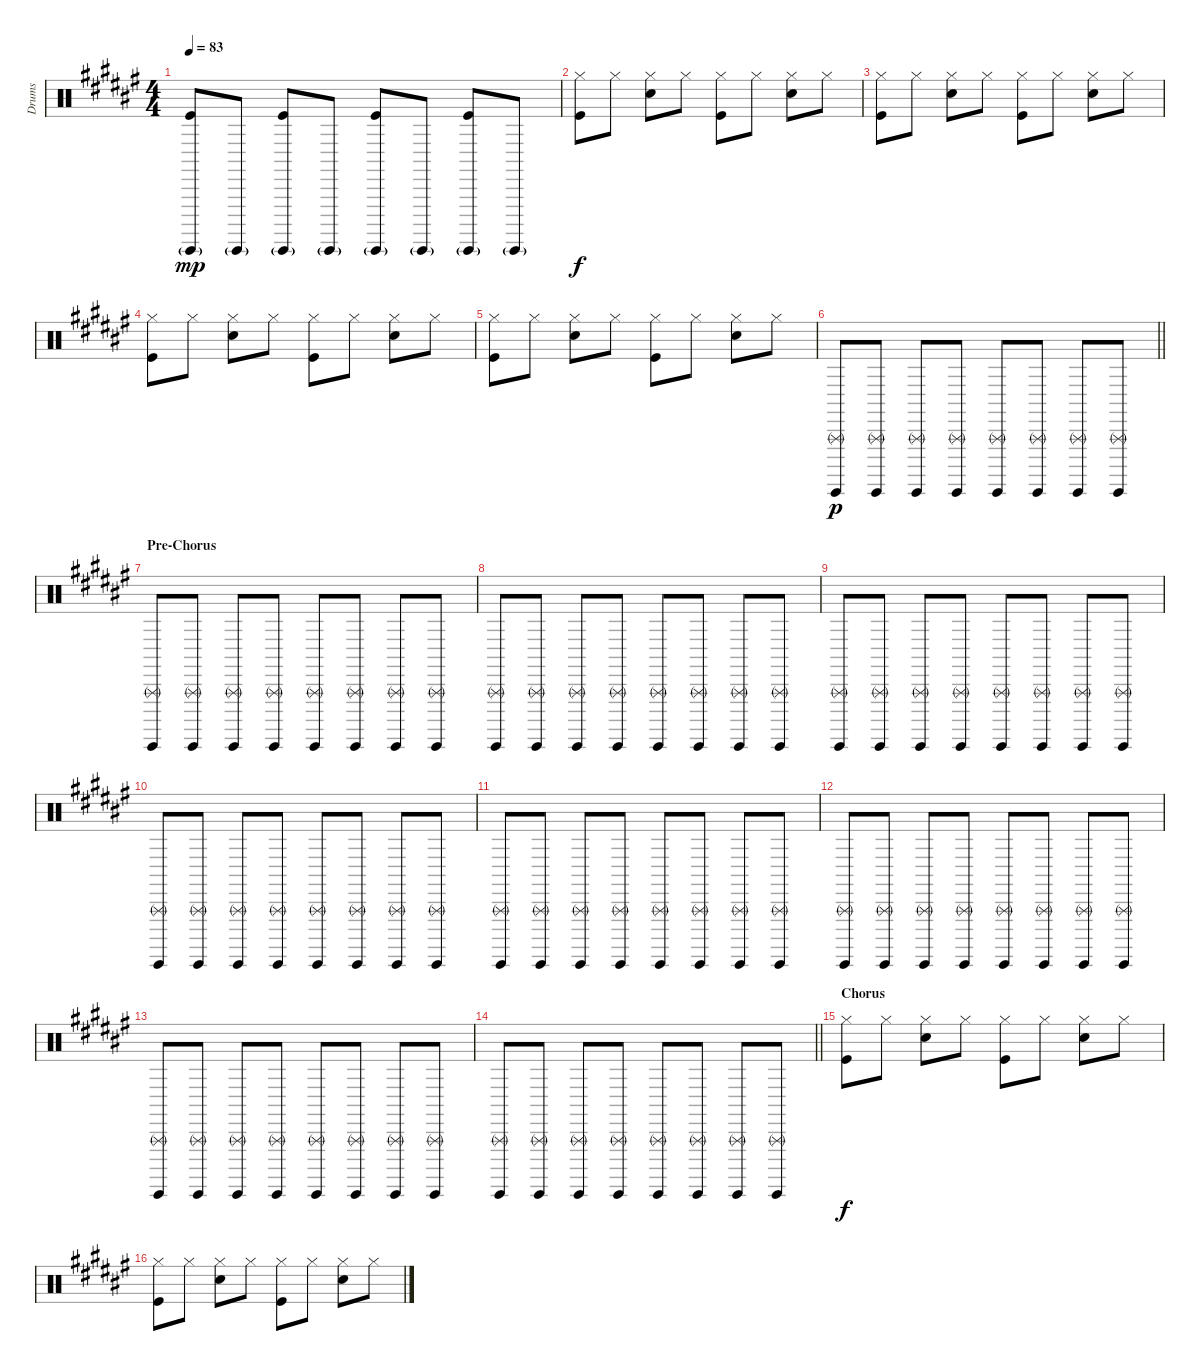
\track ("Drums" "Drums") {instrument percussion}
\staff {score}
\articulation defaults
\ts (4 4)
\tempo 83
\clef neutral
\ks d#minor
("Guiro (hit)"{g} "Kick (hit)").8{dy mp} "Guiro (hit)"{g}.8 ("Guiro (hit)"{g} "Kick (hit)").8 "Guiro (hit)"{g}.8 ("Guiro (hit)"{g} "Kick (hit)").8 "Guiro (hit)"{g}.8 ("Guiro (hit)"{g} "Kick (hit)").8 "Guiro (hit)"{g}.8 |
("Hi-Hat (closed)" "Kick (hit)").8{dy f} "Hi-Hat (closed)".8 ("Hi-Hat (closed)" "Snare (hit) 2").8 "Hi-Hat (closed)".8 ("Hi-Hat (closed)" "Kick (hit)").8 "Hi-Hat (closed)".8 ("Hi-Hat (closed)" "Snare (hit) 2").8 "Hi-Hat (closed)".8 |
("Hi-Hat (closed)" "Kick (hit)").8 "Hi-Hat (closed)".8 ("Hi-Hat (closed)" "Snare (hit) 2").8 "Hi-Hat (closed)".8 ("Hi-Hat (closed)" "Kick (hit)").8 "Hi-Hat (closed)".8 ("Hi-Hat (closed)" "Snare (hit) 2").8 "Hi-Hat (closed)".8 |
("Hi-Hat (closed)" "Kick (hit)").8 "Hi-Hat (closed)".8 ("Hi-Hat (closed)" "Snare (hit) 2").8 "Hi-Hat (closed)".8 ("Hi-Hat (closed)" "Kick (hit)").8 "Hi-Hat (closed)".8 ("Hi-Hat (closed)" "Snare (hit) 2").8 "Hi-Hat (closed)".8 |
("Hi-Hat (closed)" "Kick (hit)").8 "Hi-Hat (closed)".8 ("Hi-Hat (closed)" "Snare (hit) 2").8 "Hi-Hat (closed)".8 ("Hi-Hat (closed)" "Kick (hit)").8 "Hi-Hat (closed)".8 ("Hi-Hat (closed)" "Snare (hit) 2").8 "Hi-Hat (closed)".8 |
\barLineRight lightlight
("Guiro (hit)" "Triangle (rnute)").8{dy p} ("Guiro (hit)" "Triangle (rnute)").8 ("Guiro (hit)" "Triangle (rnute)").8 ("Guiro (hit)" "Triangle (rnute)").8 ("Guiro (hit)" "Triangle (rnute)").8 ("Guiro (hit)" "Triangle (rnute)").8 ("Guiro (hit)" "Triangle (rnute)").8 ("Guiro (hit)" "Triangle (rnute)").8 |
\section ("" "Pre-Chorus")
("Guiro (hit)" "Triangle (rnute)").8 ("Guiro (hit)" "Triangle (rnute)").8 ("Guiro (hit)" "Triangle (rnute)").8 ("Guiro (hit)" "Triangle (rnute)").8 ("Guiro (hit)" "Triangle (rnute)").8 ("Guiro (hit)" "Triangle (rnute)").8 ("Guiro (hit)" "Triangle (rnute)").8 ("Guiro (hit)" "Triangle (rnute)").8 |
("Guiro (hit)" "Triangle (rnute)").8 ("Guiro (hit)" "Triangle (rnute)").8 ("Guiro (hit)" "Triangle (rnute)").8 ("Guiro (hit)" "Triangle (rnute)").8 ("Guiro (hit)" "Triangle (rnute)").8 ("Guiro (hit)" "Triangle (rnute)").8 ("Guiro (hit)" "Triangle (rnute)").8 ("Guiro (hit)" "Triangle (rnute)").8 |
("Guiro (hit)" "Triangle (rnute)").8 ("Guiro (hit)" "Triangle (rnute)").8 ("Guiro (hit)" "Triangle (rnute)").8 ("Guiro (hit)" "Triangle (rnute)").8 ("Guiro (hit)" "Triangle (rnute)").8 ("Guiro (hit)" "Triangle (rnute)").8 ("Guiro (hit)" "Triangle (rnute)").8 ("Guiro (hit)" "Triangle (rnute)").8 |
("Guiro (hit)" "Triangle (rnute)").8 ("Guiro (hit)" "Triangle (rnute)").8 ("Guiro (hit)" "Triangle (rnute)").8 ("Guiro (hit)" "Triangle (rnute)").8 ("Guiro (hit)" "Triangle (rnute)").8 ("Guiro (hit)" "Triangle (rnute)").8 ("Guiro (hit)" "Triangle (rnute)").8 ("Guiro (hit)" "Triangle (rnute)").8 |
("Guiro (hit)" "Triangle (rnute)").8 ("Guiro (hit)" "Triangle (rnute)").8 ("Guiro (hit)" "Triangle (rnute)").8 ("Guiro (hit)" "Triangle (rnute)").8 ("Guiro (hit)" "Triangle (rnute)").8 ("Guiro (hit)" "Triangle (rnute)").8 ("Guiro (hit)" "Triangle (rnute)").8 ("Guiro (hit)" "Triangle (rnute)").8 |
("Guiro (hit)" "Triangle (rnute)").8 ("Guiro (hit)" "Triangle (rnute)").8 ("Guiro (hit)" "Triangle (rnute)").8 ("Guiro (hit)" "Triangle (rnute)").8 ("Guiro (hit)" "Triangle (rnute)").8 ("Guiro (hit)" "Triangle (rnute)").8 ("Guiro (hit)" "Triangle (rnute)").8 ("Guiro (hit)" "Triangle (rnute)").8 |
("Guiro (hit)" "Triangle (rnute)").8 ("Guiro (hit)" "Triangle (rnute)").8 ("Guiro (hit)" "Triangle (rnute)").8 ("Guiro (hit)" "Triangle (rnute)").8 ("Guiro (hit)" "Triangle (rnute)").8 ("Guiro (hit)" "Triangle (rnute)").8 ("Guiro (hit)" "Triangle (rnute)").8 ("Guiro (hit)" "Triangle (rnute)").8 |
\barLineRight lightlight
("Guiro (hit)" "Triangle (rnute)").8 ("Guiro (hit)" "Triangle (rnute)").8 ("Guiro (hit)" "Triangle (rnute)").8 ("Guiro (hit)" "Triangle (rnute)").8 ("Guiro (hit)" "Triangle (rnute)").8 ("Guiro (hit)" "Triangle (rnute)").8 ("Guiro (hit)" "Triangle (rnute)").8 ("Guiro (hit)" "Triangle (rnute)").8 |
\section ("" "Chorus")
("Hi-Hat (closed)" "Kick (hit)").8{dy f} "Hi-Hat (closed)".8 ("Hi-Hat (closed)" "Snare (hit) 2").8 "Hi-Hat (closed)".8 ("Hi-Hat (closed)" "Kick (hit)").8 "Hi-Hat (closed)".8 ("Hi-Hat (closed)" "Snare (hit) 2").8 "Hi-Hat (closed)".8 |
("Hi-Hat (closed)" "Kick (hit)").8 "Hi-Hat (closed)".8 ("Hi-Hat (closed)" "Snare (hit) 2").8 "Hi-Hat (closed)".8 ("Hi-Hat (closed)" "Kick (hit)").8 "Hi-Hat (closed)".8 ("Hi-Hat (closed)" "Snare (hit) 2").8 "Hi-Hat (closed)".8
